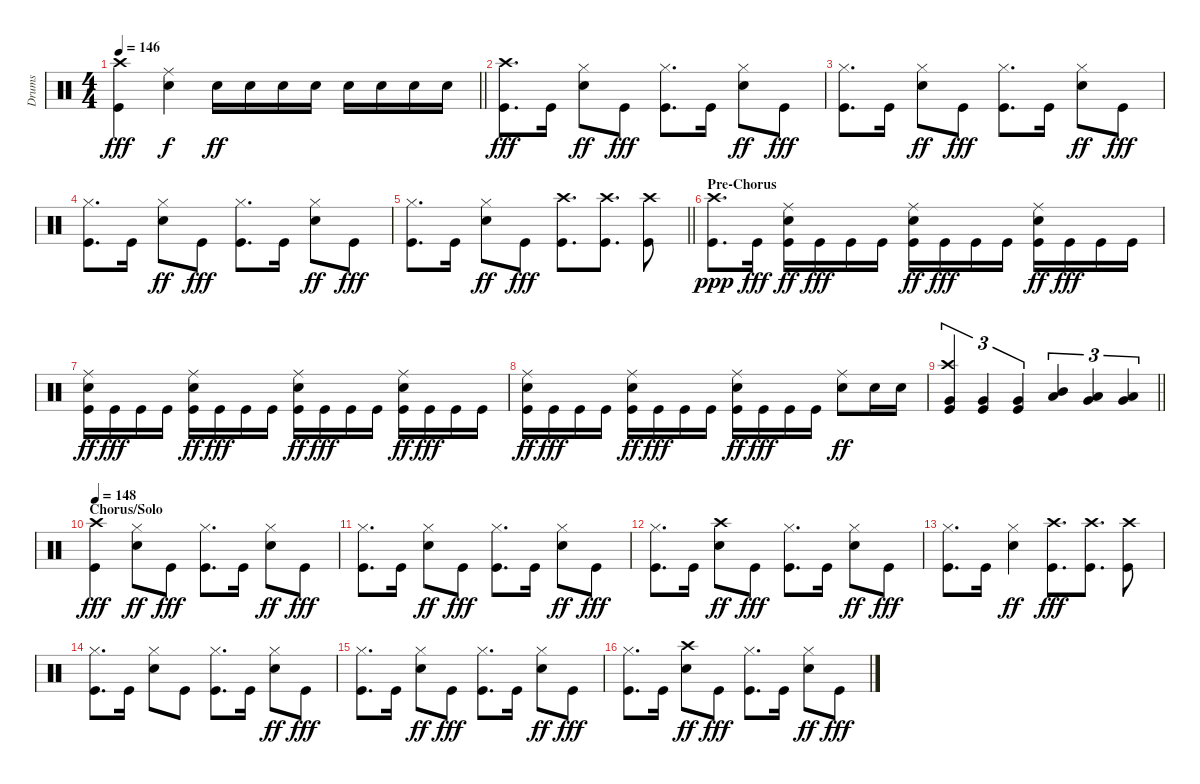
\track ("Drums" "Drums") {instrument percussion}
\staff {score}
\articulation defaults
\ts (4 4)
\tempo 146
\clef neutral
\barLineRight lightlight
\ks c
("Kick (hit)" "Crash high (hit)").4{dy fff} ("Snare (hit) 2" "Ride (middle)").4{dy f} "Snare (hit) 2".16{dy ff} "Snare (hit) 2".16 "Snare (hit) 2".16 "Snare (hit) 2".16 "Snare (hit) 2".16 "Snare (hit) 2".16 "Snare (hit) 2".16 "Snare (hit) 2".16 |
("Kick (hit)" "Crash high (hit)").8{d dy fff} "Kick (hit)".16 ("Snare (hit) 2" "Hi-Hat (closed)").8{dy ff} "Kick (hit)".8{dy fff} ("Kick (hit)" "Hi-Hat (closed)").8{d} "Kick (hit)".16 ("Snare (hit) 2" "Hi-Hat (closed)").8{dy ff} "Kick (hit)".8{dy fff} |
("Kick (hit)" "Hi-Hat (closed)").8{d} "Kick (hit)".16 ("Snare (hit) 2" "Hi-Hat (closed)").8{dy ff} "Kick (hit)".8{dy fff} ("Kick (hit)" "Hi-Hat (closed)").8{d} "Kick (hit)".16 ("Snare (hit) 2" "Hi-Hat (closed)").8{dy ff} "Kick (hit)".8{dy fff} |
("Kick (hit)" "Hi-Hat (closed)").8{d} "Kick (hit)".16 ("Snare (hit) 2" "Hi-Hat (closed)").8{dy ff} "Kick (hit)".8{dy fff} ("Kick (hit)" "Hi-Hat (closed)").8{d} "Kick (hit)".16 ("Snare (hit) 2" "Hi-Hat (closed)").8{dy ff} "Kick (hit)".8{dy fff} |
\barLineRight lightlight
("Kick (hit)" "Hi-Hat (closed)").8{d} "Kick (hit)".16 ("Snare (hit) 2" "Hi-Hat (closed)").8{dy ff} "Kick (hit)".8{dy fff} ("Kick (hit)" "Crash high (hit)").8{d} ("Kick (hit)" "Crash high (hit)").8{d} ("Kick (hit)" "Crash high (hit)").8 |
\section ("" "Pre-Chorus")
("Kick (hit)" "Crash high (hit)").8{d dy ppp} "Kick (hit)".16{dy fff} ("Kick (hit)" "Ride (middle)" "Snare (hit) 2").16{dy ff} "Kick (hit)".16{dy fff} "Kick (hit)".16 "Kick (hit)".16 ("Kick (hit)" "Ride (middle)" "Snare (hit) 2").16{dy ff} "Kick (hit)".16{dy fff} "Kick (hit)".16 "Kick (hit)".16 ("Kick (hit)" "Ride (middle)" "Snare (hit) 2").16{dy ff} "Kick (hit)".16{dy fff} "Kick (hit)".16 "Kick (hit)".16 |
("Kick (hit)" "Ride (middle)" "Snare (hit) 2").16{dy ff} "Kick (hit)".16{dy fff} "Kick (hit)".16 "Kick (hit)".16 ("Kick (hit)" "Ride (middle)" "Snare (hit) 2").16{dy ff} "Kick (hit)".16{dy fff} "Kick (hit)".16 "Kick (hit)".16 ("Kick (hit)" "Ride (middle)" "Snare (hit) 2").16{dy ff} "Kick (hit)".16{dy fff} "Kick (hit)".16 "Kick (hit)".16 ("Kick (hit)" "Ride (middle)" "Snare (hit) 2").16{dy ff} "Kick (hit)".16{dy fff} "Kick (hit)".16 "Kick (hit)".16 |
("Kick (hit)" "Ride (middle)" "Snare (hit) 2").16{dy ff} "Kick (hit)".16{dy fff} "Kick (hit)".16 "Kick (hit)".16 ("Kick (hit)" "Ride (middle)" "Snare (hit) 2").16{dy ff} "Kick (hit)".16{dy fff} "Kick (hit)".16 "Kick (hit)".16 ("Kick (hit)" "Ride (middle)" "Snare (hit) 2").16{dy ff} "Kick (hit)".16{dy fff} "Kick (hit)".16 "Kick (hit)".16 ("Snare (hit) 2" "Ride (middle)").8{dy ff} "Snare (hit) 2".16 "Snare (hit) 2".16 |
\barLineRight lightlight
("Kick (hit)" "Crash high (hit)" "Very Low Tom (hit)").4{tu (3 2)} ("Kick (hit)" "Very Low Tom (hit)").4{tu (3 2)} ("Kick (hit)" "Very Low Tom (hit)").4{tu (3 2)} ("Mid Tom (hit)" "Low Tom (hit)").4{tu (3 2)} ("Very Low Tom (hit)" "Low Tom (hit)").4{tu (3 2)} ("Low Floor Tom (hit)" "Very Low Tom (hit)").4{tu (3 2)} |
\section ("" "Chorus/Solo")
\tempo 148
("Kick (hit)" "Crash high (hit)").4{dy fff} ("Snare (hit) 2" "Hi-Hat (closed)").8{dy ff} "Kick (hit)".8{dy fff} ("Kick (hit)" "Hi-Hat (closed)").8{d} "Kick (hit)".16 ("Snare (hit) 2" "Hi-Hat (closed)").8{dy ff} "Kick (hit)".8{dy fff} |
("Kick (hit)" "Hi-Hat (closed)").8{d} "Kick (hit)".16 ("Snare (hit) 2" "Hi-Hat (closed)").8{dy ff} "Kick (hit)".8{dy fff} ("Kick (hit)" "Hi-Hat (closed)").8{d} "Kick (hit)".16 ("Snare (hit) 2" "Hi-Hat (closed)").8{dy ff} "Kick (hit)".8{dy fff} |
("Kick (hit)" "Hi-Hat (closed)").8{d} "Kick (hit)".16 ("Snare (hit) 2" "Crash high (hit)").8{dy ff} "Kick (hit)".8{dy fff} ("Kick (hit)" "Hi-Hat (closed)").8{d} "Kick (hit)".16 ("Snare (hit) 2" "Hi-Hat (closed)").8{dy ff} "Kick (hit)".8{dy fff} |
("Kick (hit)" "Hi-Hat (closed)").8{d} "Kick (hit)".16 ("Snare (hit) 2" "Hi-Hat (closed)").4{dy ff} ("Kick (hit)" "Crash high (hit)").8{d dy fff} ("Crash high (hit)" "Kick (hit)").8{d} ("Kick (hit)" "Crash high (hit)").8 |
("Kick (hit)" "Hi-Hat (closed)").8{d} "Kick (hit)".16 ("Snare (hit) 2" "Hi-Hat (closed)").8 "Kick (hit)".8 ("Kick (hit)" "Hi-Hat (closed)").8{d} "Kick (hit)".16 ("Snare (hit) 2" "Hi-Hat (closed)").8{dy ff} "Kick (hit)".8{dy fff} |
("Kick (hit)" "Hi-Hat (closed)").8{d} "Kick (hit)".16 ("Snare (hit) 2" "Hi-Hat (closed)").8{dy ff} "Kick (hit)".8{dy fff} ("Kick (hit)" "Hi-Hat (closed)").8{d} "Kick (hit)".16 ("Snare (hit) 2" "Hi-Hat (closed)").8{dy ff} "Kick (hit)".8{dy fff} |
("Kick (hit)" "Hi-Hat (closed)").8{d} "Kick (hit)".16 ("Snare (hit) 2" "Crash high (hit)").8{dy ff} "Kick (hit)".8{dy fff} ("Kick (hit)" "Hi-Hat (closed)").8{d} "Kick (hit)".16 ("Snare (hit) 2" "Hi-Hat (closed)").8{dy ff} "Kick (hit)".8{dy fff}
